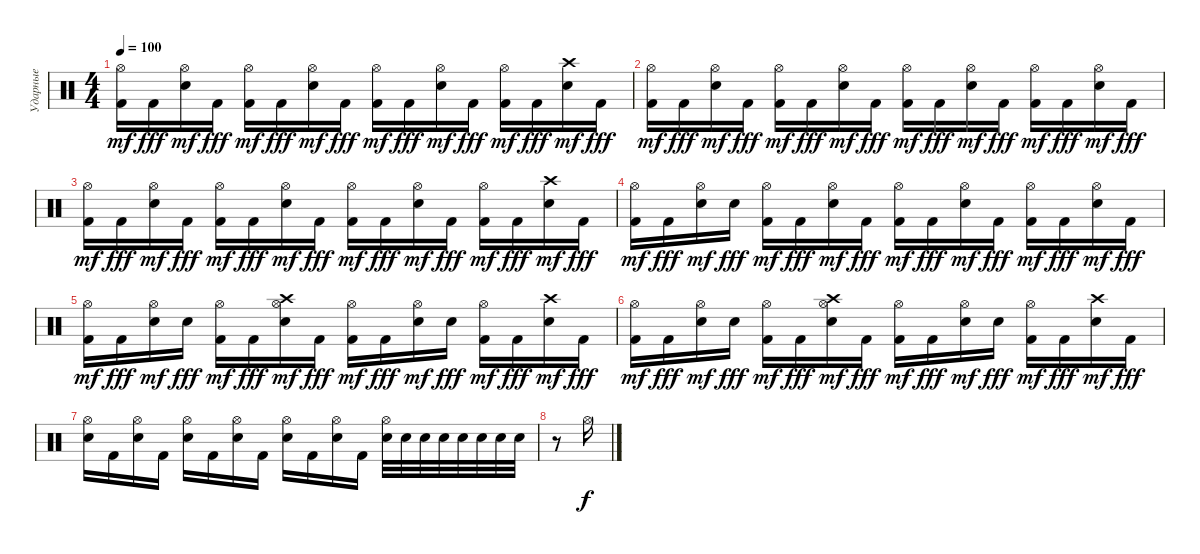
\track ("Ударные" "Ударные") {instrument percussion}
\staff {score}
\articulation defaults
\ts (4 4)
\tempo 100
\clef neutral
\ks c
("Kick (hit) 2" "Hi-Hat (open)").16{dy mf} "Kick (hit) 2".16{dy fff} ("Electric Snare (hit)" "Hi-Hat (open)").16{dy mf} "Kick (hit) 2".16{dy fff} ("Kick (hit) 2" "Hi-Hat (open)").16{dy mf} "Kick (hit) 2".16{dy fff} ("Electric Snare (hit)" "Hi-Hat (open)").16{dy mf} "Kick (hit) 2".16{dy fff} ("Kick (hit) 2" "Hi-Hat (open)").16{dy mf} "Kick (hit) 2".16{dy fff} ("Electric Snare (hit)" "Hi-Hat (open)").16{dy mf} "Kick (hit) 2".16{dy fff} ("Kick (hit) 2" "Hi-Hat (open)").16{dy mf} "Kick (hit) 2".16{dy fff} ("Electric Snare (hit)" "Crash high (hit)").16{dy mf} "Kick (hit) 2".16{dy fff} |
("Kick (hit) 2" "Hi-Hat (open)").16{dy mf} "Kick (hit) 2".16{dy fff} ("Electric Snare (hit)" "Hi-Hat (open)").16{dy mf} "Kick (hit) 2".16{dy fff} ("Kick (hit) 2" "Hi-Hat (open)").16{dy mf} "Kick (hit) 2".16{dy fff} ("Electric Snare (hit)" "Hi-Hat (open)").16{dy mf} "Kick (hit) 2".16{dy fff} ("Kick (hit) 2" "Hi-Hat (open)").16{dy mf} "Kick (hit) 2".16{dy fff} ("Electric Snare (hit)" "Hi-Hat (open)").16{dy mf} "Kick (hit) 2".16{dy fff} ("Kick (hit) 2" "Hi-Hat (open)").16{dy mf} "Kick (hit) 2".16{dy fff} ("Electric Snare (hit)" "Hi-Hat (open)").16{dy mf} "Kick (hit) 2".16{dy fff} |
("Kick (hit) 2" "Hi-Hat (open)").16{dy mf} "Kick (hit) 2".16{dy fff} ("Electric Snare (hit)" "Hi-Hat (open)").16{dy mf} "Kick (hit) 2".16{dy fff} ("Kick (hit) 2" "Hi-Hat (open)").16{dy mf} "Kick (hit) 2".16{dy fff} ("Electric Snare (hit)" "Hi-Hat (open)").16{dy mf} "Kick (hit) 2".16{dy fff} ("Kick (hit) 2" "Hi-Hat (open)").16{dy mf} "Kick (hit) 2".16{dy fff} ("Electric Snare (hit)" "Hi-Hat (open)").16{dy mf} "Kick (hit) 2".16{dy fff} ("Kick (hit) 2" "Hi-Hat (open)").16{dy mf} "Kick (hit) 2".16{dy fff} ("Electric Snare (hit)" "Crash high (hit)").16{dy mf} "Kick (hit) 2".16{dy fff} |
("Kick (hit) 2" "Hi-Hat (open)").16{dy mf} "Kick (hit) 2".16{dy fff} ("Electric Snare (hit)" "Hi-Hat (open)").16{dy mf} "Electric Snare (hit)".16{dy fff} ("Kick (hit) 2" "Hi-Hat (open)").16{dy mf} "Kick (hit) 2".16{dy fff} ("Electric Snare (hit)" "Hi-Hat (open)").16{dy mf} "Kick (hit) 2".16{dy fff} ("Kick (hit) 2" "Hi-Hat (open)").16{dy mf} "Kick (hit) 2".16{dy fff} ("Electric Snare (hit)" "Hi-Hat (open)").16{dy mf} "Kick (hit) 2".16{dy fff} ("Kick (hit) 2" "Hi-Hat (open)").16{dy mf} "Kick (hit) 2".16{dy fff} ("Electric Snare (hit)" "Hi-Hat (open)").16{dy mf} "Kick (hit) 2".16{dy fff} |
("Kick (hit) 2" "Hi-Hat (open)").16{dy mf} "Kick (hit) 2".16{dy fff} ("Electric Snare (hit)" "Hi-Hat (open)").16{dy mf} "Electric Snare (hit)".16{dy fff} ("Kick (hit) 2" "Hi-Hat (open)").16{dy mf} "Kick (hit) 2".16{dy fff} ("Electric Snare (hit)" "Hi-Hat (open)" "Crash high (hit)").16{dy mf} "Kick (hit) 2".16{dy fff} ("Kick (hit) 2" "Hi-Hat (open)").16{dy mf} "Kick (hit) 2".16{dy fff} ("Electric Snare (hit)" "Hi-Hat (open)").16{dy mf} "Electric Snare (hit)".16{dy fff} ("Kick (hit) 2" "Hi-Hat (open)").16{dy mf} "Kick (hit) 2".16{dy fff} ("Electric Snare (hit)" "Crash high (hit)").16{dy mf} "Kick (hit) 2".16{dy fff} |
("Kick (hit) 2" "Hi-Hat (open)").16{dy mf} "Kick (hit) 2".16{dy fff} ("Electric Snare (hit)" "Hi-Hat (open)").16{dy mf} "Electric Snare (hit)".16{dy fff} ("Kick (hit) 2" "Hi-Hat (open)").16{dy mf} "Kick (hit) 2".16{dy fff} ("Electric Snare (hit)" "Hi-Hat (open)" "Crash high (hit)").16{dy mf} "Kick (hit) 2".16{dy fff} ("Kick (hit) 2" "Hi-Hat (open)").16{dy mf} "Kick (hit) 2".16{dy fff} ("Electric Snare (hit)" "Hi-Hat (open)").16{dy mf} "Electric Snare (hit)".16{dy fff} ("Kick (hit) 2" "Hi-Hat (open)").16{dy mf} "Kick (hit) 2".16{dy fff} ("Electric Snare (hit)" "Crash high (hit)").16{dy mf} "Kick (hit) 2".16{dy fff} |
("Electric Snare (hit)" "Hi-Hat (open)").16 "Kick (hit) 2".16 ("Electric Snare (hit)" "Hi-Hat (open)").16 "Kick (hit) 2".16 ("Electric Snare (hit)" "Hi-Hat (open)").16 "Kick (hit) 2".16 ("Electric Snare (hit)" "Hi-Hat (open)").16 "Kick (hit) 2".16 ("Electric Snare (hit)" "Hi-Hat (open)").16 "Kick (hit) 2".16 ("Electric Snare (hit)" "Hi-Hat (open)").16 "Kick (hit) 2".16 ("Electric Snare (hit)" "Hi-Hat (open)").32 "Electric Snare (hit)".32 "Electric Snare (hit)".32 "Electric Snare (hit)".32 "Electric Snare (hit)".32 "Electric Snare (hit)".32 "Electric Snare (hit)".32 "Electric Snare (hit)".32 |
r.8 "Hi-Hat (open)".16{dy f}
